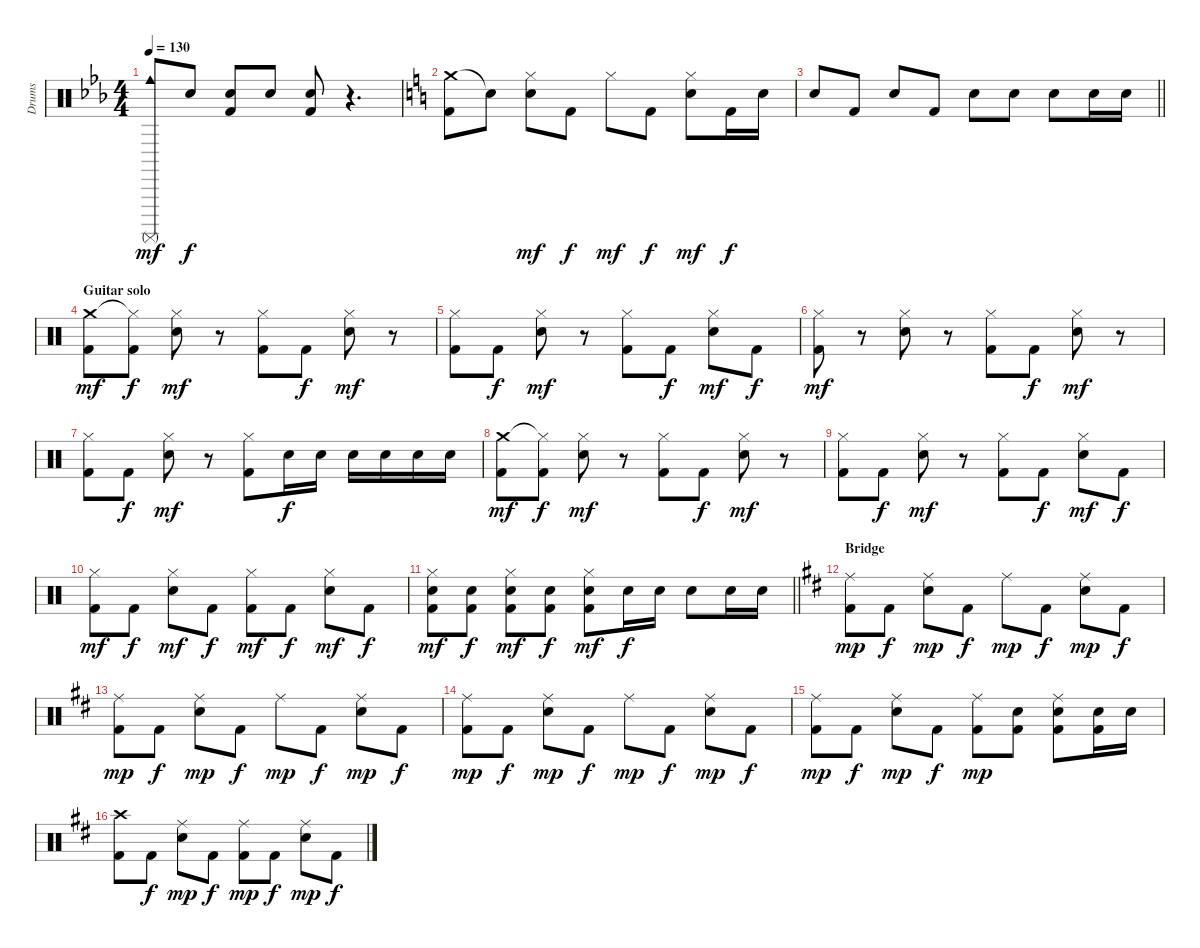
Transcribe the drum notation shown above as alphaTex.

\track ("Drums" "Drums") {instrument percussion}
\staff {score}
\articulation defaults
\ts (4 4)
\tempo 130
\clef neutral
\ks eb
("Surdo (mute)" "Cowbell medium (hit)").8{dy mf} "Electric Snare (hit)".8{dy f} ("Electric Snare (hit)" "Kick (hit) 2").8 "Electric Snare (hit)".8 ("Electric Snare (hit)" "Kick (hit) 2").8 r.4{d} |
\ks c
("Crash medium (hit)" "Kick (hit) 2").8 "Snare (hit)"{t}.8 ("Hi-Hat (closed)" "Electric Snare (hit)").8{dy mf} "Kick (hit) 2".8{dy f} "Hi-Hat (closed)".8{dy mf} "Kick (hit) 2".8{dy f} ("Hi-Hat (closed)" "Electric Snare (hit)").8{dy mf} "Kick (hit) 2".16{dy f} "Electric Snare (hit)".16 |
\barLineRight lightlight "Electric Snare (hit)".8 "Kick (hit) 2".8 "Electric Snare (hit)".8 "Kick (hit) 2".8 "Electric Snare (hit)".8 "Electric Snare (hit)".8 "Electric Snare (hit)".8 "Electric Snare (hit)".16 "Electric Snare (hit)".16
|
\section ("" "Guitar solo")
("Crash medium (hit)" "Kick (hit) 2").8{dy mf} ("Hi-Hat (closed)"{t} "Kick (hit) 2").8{dy f} ("Hi-Hat (closed)" "Electric Snare (hit)").8{dy mf} r.8 ("Hi-Hat (closed)" "Kick (hit) 2").8 "Kick (hit) 2".8{dy f} ("Hi-Hat (closed)" "Electric Snare (hit)").8{dy mf} r.8 |
("Hi-Hat (closed)" "Kick (hit) 2").8 "Kick (hit) 2".8{dy f} ("Hi-Hat (closed)" "Electric Snare (hit)").8{dy mf} r.8 ("Hi-Hat (closed)" "Kick (hit) 2").8 "Kick (hit) 2".8{dy f} ("Hi-Hat (closed)" "Electric Snare (hit)").8{dy mf} "Kick (hit) 2".8{dy f} |
("Hi-Hat (closed)" "Kick (hit) 2").8{dy mf} r.8 ("Hi-Hat (closed)" "Electric Snare (hit)").8 r.8 ("Hi-Hat (closed)" "Kick (hit) 2").8 "Kick (hit) 2".8{dy f} ("Hi-Hat (closed)" "Electric Snare (hit)").8{dy mf} r.8 |
("Hi-Hat (closed)" "Kick (hit) 2").8 "Kick (hit) 2".8{dy f} ("Hi-Hat (closed)" "Electric Snare (hit)").8{dy mf} r.8 ("Hi-Hat (closed)" "Kick (hit) 2").8 "Electric Snare (hit)".16{dy f} "Electric Snare (hit)".16 "Electric Snare (hit)".16 "Electric Snare (hit)".16 "Electric Snare (hit)".16 "Electric Snare (hit)".16 |
("Crash medium (hit)" "Kick (hit) 2").8{dy mf} ("Hi-Hat (closed)"{t} "Kick (hit) 2").8{dy f} ("Hi-Hat (closed)" "Electric Snare (hit)").8{dy mf} r.8 ("Hi-Hat (closed)" "Kick (hit) 2").8 "Kick (hit) 2".8{dy f} ("Hi-Hat (closed)" "Electric Snare (hit)").8{dy mf} r.8 |
("Hi-Hat (closed)" "Kick (hit) 2").8 "Kick (hit) 2".8{dy f} ("Hi-Hat (closed)" "Electric Snare (hit)").8{dy mf} r.8 ("Hi-Hat (closed)" "Kick (hit) 2").8 "Kick (hit) 2".8{dy f} ("Hi-Hat (closed)" "Electric Snare (hit)").8{dy mf} "Kick (hit) 2".8{dy f} |
("Hi-Hat (closed)" "Kick (hit) 2").8{dy mf} "Kick (hit) 2".8{dy f} ("Hi-Hat (closed)" "Electric Snare (hit)").8{dy mf} "Kick (hit) 2".8{dy f} ("Hi-Hat (closed)" "Kick (hit) 2").8{dy mf} "Kick (hit) 2".8{dy f} ("Hi-Hat (closed)" "Electric Snare (hit)").8{dy mf} "Kick (hit) 2".8{dy f} |
\barLineRight lightlight
("Hi-Hat (closed)" "Electric Snare (hit)" "Kick (hit) 2").8{dy mf} ("Electric Snare (hit)" "Kick (hit) 2").8{dy f} ("Hi-Hat (closed)" "Electric Snare (hit)" "Kick (hit) 2").8{dy mf} ("Electric Snare (hit)" "Kick (hit) 2").8{dy f} ("Hi-Hat (closed)" "Electric Snare (hit)" "Kick (hit) 2").8{dy mf} "Electric Snare (hit)".16{dy f} "Electric Snare (hit)".16 "Electric Snare (hit)".8 "Electric Snare (hit)".16 "Electric Snare (hit)".16 |
\section ("" "Bridge")
\ks d
("Ride (middle)" "Kick (hit) 2").8{dy mp} "Kick (hit) 2".8{dy f} ("Ride (middle)" "Electric Snare (hit)").8{dy mp} "Kick (hit) 2".8{dy f} "Ride (middle)".8{dy mp} "Kick (hit) 2".8{dy f} ("Ride (middle)" "Electric Snare (hit)").8{dy mp} "Kick (hit) 2".8{dy f} |
("Ride (middle)" "Kick (hit) 2").8{dy mp} "Kick (hit) 2".8{dy f} ("Ride (middle)" "Electric Snare (hit)").8{dy mp} "Kick (hit) 2".8{dy f} "Ride (middle)".8{dy mp} "Kick (hit) 2".8{dy f} ("Ride (middle)" "Electric Snare (hit)").8{dy mp} "Kick (hit) 2".8{dy f} |
("Ride (middle)" "Kick (hit) 2").8{dy mp} "Kick (hit) 2".8{dy f} ("Ride (middle)" "Electric Snare (hit)").8{dy mp} "Kick (hit) 2".8{dy f} "Ride (middle)".8{dy mp} "Kick (hit) 2".8{dy f} ("Ride (middle)" "Electric Snare (hit)").8{dy mp} "Kick (hit) 2".8{dy f} |
("Ride (middle)" "Kick (hit) 2").8{dy mp} "Kick (hit) 2".8{dy f} ("Ride (middle)" "Electric Snare (hit)").8{dy mp} "Kick (hit) 2".8{dy f} ("Ride (middle)" "Kick (hit) 2").8{dy mp} ("Electric Snare (hit)" "Kick (hit) 2").8 ("Ride (middle)" "Electric Snare (hit)" "Kick (hit) 2").8 ("Electric Snare (hit)" "Kick (hit) 2").16 "Electric Snare (hit)".16 |
("Crash high (hit)" "Kick (hit) 2").8 "Kick (hit) 2".8{dy f} ("Ride (middle)" "Electric Snare (hit)").8{dy mp} "Kick (hit) 2".8{dy f} ("Ride (middle)" "Kick (hit) 2").8{dy mp} "Kick (hit) 2".8{dy f} ("Ride (middle)" "Electric Snare (hit)").8{dy mp} "Kick (hit) 2".8{dy f}
